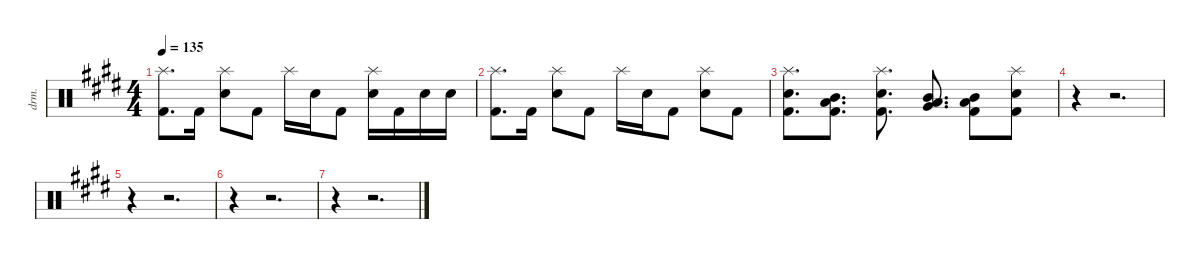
\defaultSystemsLayout 4
\hideDynamics
\bracketExtendMode nobrackets
\track ("Drumkit" "drm.") {instrument percussion}
\staff {score}
\articulation defaults
\ts (4 4)
\tempo 135
\clef neutral
\ks e
("Splash (hit)"{acc forcenatural} "Kick (hit) 2"{acc forcenatural}).8{d dy mf} "Kick (hit) 2"{acc forcenatural}.16 ("Snare (hit) 2"{acc forcenatural} "Splash (hit)"{acc forcenatural}).8 "Kick (hit) 2"{acc forcenatural}.8 "Splash (hit)"{acc forcenatural}.16 "Snare (hit) 2"{acc forcenatural}.16 "Kick (hit) 2"{acc forcenatural}.8 ("Splash (hit)"{acc forcenatural} "Snare (hit) 2"{acc forcenatural}).16 "Kick (hit) 2"{acc forcenatural}.16 "Snare (hit) 2"{acc forcenatural}.16 "Snare (hit) 2"{acc forcenatural}.16 |
("Splash (hit)"{acc forcenatural} "Kick (hit) 2"{acc forcenatural}).8{d} "Kick (hit) 2"{acc forcenatural}.16 ("Snare (hit) 2"{acc forcenatural} "Splash (hit)"{acc forcenatural}).8 "Kick (hit) 2"{acc forcenatural}.8 "Splash (hit)"{acc forcenatural}.16 "Snare (hit) 2"{acc forcenatural}.16 "Kick (hit) 2"{acc forcenatural}.8 ("Splash (hit)"{acc forcenatural} "Snare (hit) 2"{acc forcenatural}).8 "Kick (hit) 2"{acc forcenatural}.8 |
("Kick (hit) 2"{acc forcenatural} "Snare (hit) 2"{acc forcenatural} "Splash (hit)"{acc forcenatural}).8{d} ("Mid Tom (hit)"{acc forcenatural} "Kick (hit) 2"{acc forcenatural} "Low Tom (hit)"{acc forcenatural}).8{d} ("Kick (hit) 2"{acc forcenatural} "Snare (hit) 2"{acc forcenatural} "Splash (hit)"{acc forcenatural}).8{d} ("Mid Tom (hit)"{acc forcenatural} "Very Low Tom (hit)"{acc forcenatural} "Low Tom (hit)"{acc forcenatural}).8{d} ("Mid Tom (hit)"{acc forcenatural} "Kick (hit) 2"{acc forcenatural} "Low Tom (hit)"{acc forcenatural}).8 ("Kick (hit) 2"{acc forcenatural} "Snare (hit) 2"{acc forcenatural} "Splash (hit)"{acc forcenatural}).8 |
r.4 r.2{d} |
r.4 r.2{d} |
r.4 r.2{d} |
r.4 r.2{d}
